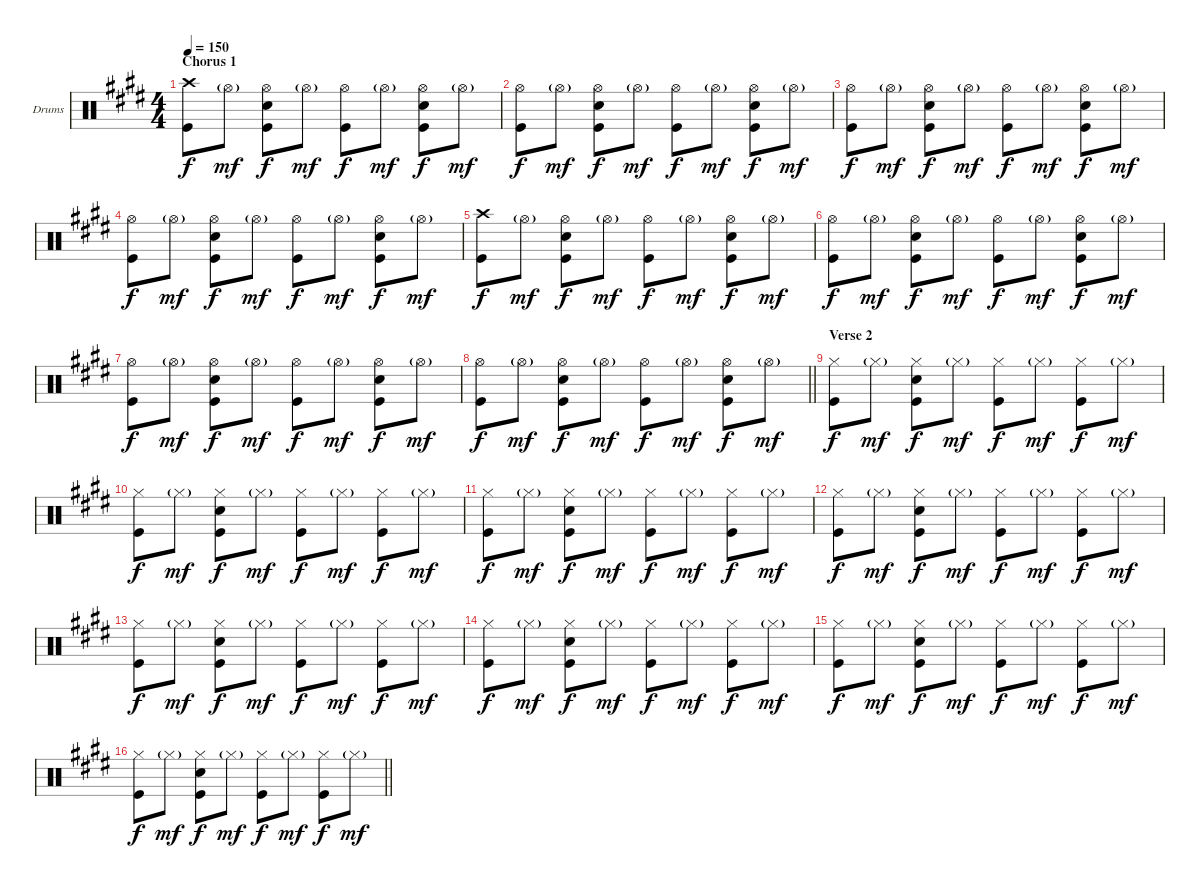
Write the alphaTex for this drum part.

\bracketExtendMode groupsimilarinstruments
\firstSystemTrackNameOrientation horizontal
\otherSystemsTrackNameOrientation horizontal
\track ("Drumkit" "Drums") {instrument percussion}
\staff {score}
\articulation defaults
\ts (4 4)
\section ("" "Chorus 1")
\tempo 150
\clef neutral
\ks e
("Crash high (hit)" "Kick (hit)").8{dy f} "Hi-Hat (open)"{g}.8{dy mf} ("Hi-Hat (open)" "Snare (hit) 2" "Kick (hit)").8{dy f} "Hi-Hat (open)"{g}.8{dy mf} ("Hi-Hat (open)" "Kick (hit)").8{dy f} "Hi-Hat (open)"{g}.8{dy mf} ("Hi-Hat (open)" "Snare (hit) 2" "Kick (hit)").8{dy f} "Hi-Hat (open)"{g}.8{dy mf} |
("Hi-Hat (open)" "Kick (hit)").8{dy f} "Hi-Hat (open)"{g}.8{dy mf} ("Hi-Hat (open)" "Snare (hit) 2" "Kick (hit)").8{dy f} "Hi-Hat (open)"{g}.8{dy mf} ("Hi-Hat (open)" "Kick (hit)").8{dy f} "Hi-Hat (open)"{g}.8{dy mf} ("Hi-Hat (open)" "Snare (hit) 2" "Kick (hit)").8{dy f} "Hi-Hat (open)"{g}.8{dy mf} |
("Hi-Hat (open)" "Kick (hit)").8{dy f} "Hi-Hat (open)"{g}.8{dy mf} ("Hi-Hat (open)" "Snare (hit) 2" "Kick (hit)").8{dy f} "Hi-Hat (open)"{g}.8{dy mf} ("Hi-Hat (open)" "Kick (hit)").8{dy f} "Hi-Hat (open)"{g}.8{dy mf} ("Hi-Hat (open)" "Snare (hit) 2" "Kick (hit)").8{dy f} "Hi-Hat (open)"{g}.8{dy mf} |
("Hi-Hat (open)" "Kick (hit)").8{dy f} "Hi-Hat (open)"{g}.8{dy mf} ("Hi-Hat (open)" "Snare (hit) 2" "Kick (hit)").8{dy f} "Hi-Hat (open)"{g}.8{dy mf} ("Hi-Hat (open)" "Kick (hit)").8{dy f} "Hi-Hat (open)"{g}.8{dy mf} ("Hi-Hat (open)" "Snare (hit) 2" "Kick (hit)").8{dy f} "Hi-Hat (open)"{g}.8{dy mf} |
("Crash high (hit)" "Kick (hit)").8{dy f} "Hi-Hat (open)"{g}.8{dy mf} ("Hi-Hat (open)" "Snare (hit) 2" "Kick (hit)").8{dy f} "Hi-Hat (open)"{g}.8{dy mf} ("Hi-Hat (open)" "Kick (hit)").8{dy f} "Hi-Hat (open)"{g}.8{dy mf} ("Hi-Hat (open)" "Snare (hit) 2" "Kick (hit)").8{dy f} "Hi-Hat (open)"{g}.8{dy mf} |
("Hi-Hat (open)" "Kick (hit)").8{dy f} "Hi-Hat (open)"{g}.8{dy mf} ("Hi-Hat (open)" "Snare (hit) 2" "Kick (hit)").8{dy f} "Hi-Hat (open)"{g}.8{dy mf} ("Hi-Hat (open)" "Kick (hit)").8{dy f} "Hi-Hat (open)"{g}.8{dy mf} ("Hi-Hat (open)" "Snare (hit) 2" "Kick (hit)").8{dy f} "Hi-Hat (open)"{g}.8{dy mf} |
("Hi-Hat (open)" "Kick (hit)").8{dy f} "Hi-Hat (open)"{g}.8{dy mf} ("Hi-Hat (open)" "Snare (hit) 2" "Kick (hit)").8{dy f} "Hi-Hat (open)"{g}.8{dy mf} ("Hi-Hat (open)" "Kick (hit)").8{dy f} "Hi-Hat (open)"{g}.8{dy mf} ("Hi-Hat (open)" "Snare (hit) 2" "Kick (hit)").8{dy f} "Hi-Hat (open)"{g}.8{dy mf} |
\barLineRight lightlight
("Hi-Hat (open)" "Kick (hit)").8{dy f} "Hi-Hat (open)"{g}.8{dy mf} ("Hi-Hat (open)" "Snare (hit) 2" "Kick (hit)").8{dy f} "Hi-Hat (open)"{g}.8{dy mf} ("Hi-Hat (open)" "Kick (hit)").8{dy f} "Hi-Hat (open)"{g}.8{dy mf} ("Hi-Hat (open)" "Snare (hit) 2" "Kick (hit)").8{dy f} "Hi-Hat (open)"{g}.8{dy mf} |
\section ("" "Verse 2")
("Hi-Hat (closed)" "Kick (hit)").8{dy f} "Hi-Hat (closed)"{g}.8{dy mf} ("Hi-Hat (closed)" "Snare (hit) 2" "Kick (hit)").8{dy f} "Hi-Hat (closed)"{g}.8{dy mf} ("Hi-Hat (closed)" "Kick (hit)").8{dy f} "Hi-Hat (closed)"{g}.8{dy mf} ("Hi-Hat (closed)" "Kick (hit)").8{dy f} "Hi-Hat (closed)"{g}.8{dy mf} |
("Hi-Hat (closed)" "Kick (hit)").8{dy f} "Hi-Hat (closed)"{g}.8{dy mf} ("Hi-Hat (closed)" "Snare (hit) 2" "Kick (hit)").8{dy f} "Hi-Hat (closed)"{g}.8{dy mf} ("Hi-Hat (closed)" "Kick (hit)").8{dy f} "Hi-Hat (closed)"{g}.8{dy mf} ("Hi-Hat (closed)" "Kick (hit)").8{dy f} "Hi-Hat (closed)"{g}.8{dy mf} |
("Hi-Hat (closed)" "Kick (hit)").8{dy f} "Hi-Hat (closed)"{g}.8{dy mf} ("Hi-Hat (closed)" "Snare (hit) 2" "Kick (hit)").8{dy f} "Hi-Hat (closed)"{g}.8{dy mf} ("Hi-Hat (closed)" "Kick (hit)").8{dy f} "Hi-Hat (closed)"{g}.8{dy mf} ("Hi-Hat (closed)" "Kick (hit)").8{dy f} "Hi-Hat (closed)"{g}.8{dy mf} |
("Hi-Hat (closed)" "Kick (hit)").8{dy f} "Hi-Hat (closed)"{g}.8{dy mf} ("Hi-Hat (closed)" "Snare (hit) 2" "Kick (hit)").8{dy f} "Hi-Hat (closed)"{g}.8{dy mf} ("Hi-Hat (closed)" "Kick (hit)").8{dy f} "Hi-Hat (closed)"{g}.8{dy mf} ("Hi-Hat (closed)" "Kick (hit)").8{dy f} "Hi-Hat (closed)"{g}.8{dy mf} |
("Hi-Hat (closed)" "Kick (hit)").8{dy f} "Hi-Hat (closed)"{g}.8{dy mf} ("Hi-Hat (closed)" "Snare (hit) 2" "Kick (hit)").8{dy f} "Hi-Hat (closed)"{g}.8{dy mf} ("Hi-Hat (closed)" "Kick (hit)").8{dy f} "Hi-Hat (closed)"{g}.8{dy mf} ("Hi-Hat (closed)" "Kick (hit)").8{dy f} "Hi-Hat (closed)"{g}.8{dy mf} |
("Hi-Hat (closed)" "Kick (hit)").8{dy f} "Hi-Hat (closed)"{g}.8{dy mf} ("Hi-Hat (closed)" "Snare (hit) 2" "Kick (hit)").8{dy f} "Hi-Hat (closed)"{g}.8{dy mf} ("Hi-Hat (closed)" "Kick (hit)").8{dy f} "Hi-Hat (closed)"{g}.8{dy mf} ("Hi-Hat (closed)" "Kick (hit)").8{dy f} "Hi-Hat (closed)"{g}.8{dy mf} |
("Hi-Hat (closed)" "Kick (hit)").8{dy f} "Hi-Hat (closed)"{g}.8{dy mf} ("Hi-Hat (closed)" "Snare (hit) 2" "Kick (hit)").8{dy f} "Hi-Hat (closed)"{g}.8{dy mf} ("Hi-Hat (closed)" "Kick (hit)").8{dy f} "Hi-Hat (closed)"{g}.8{dy mf} ("Hi-Hat (closed)" "Kick (hit)").8{dy f} "Hi-Hat (closed)"{g}.8{dy mf} |
\barLineRight lightlight
("Hi-Hat (closed)" "Kick (hit)").8{dy f} "Hi-Hat (closed)"{g}.8{dy mf} ("Hi-Hat (closed)" "Snare (hit) 2" "Kick (hit)").8{dy f} "Hi-Hat (closed)"{g}.8{dy mf} ("Hi-Hat (closed)" "Kick (hit)").8{dy f} "Hi-Hat (closed)"{g}.8{dy mf} ("Hi-Hat (closed)" "Kick (hit)").8{dy f} "Hi-Hat (closed)"{g}.8{dy mf}
